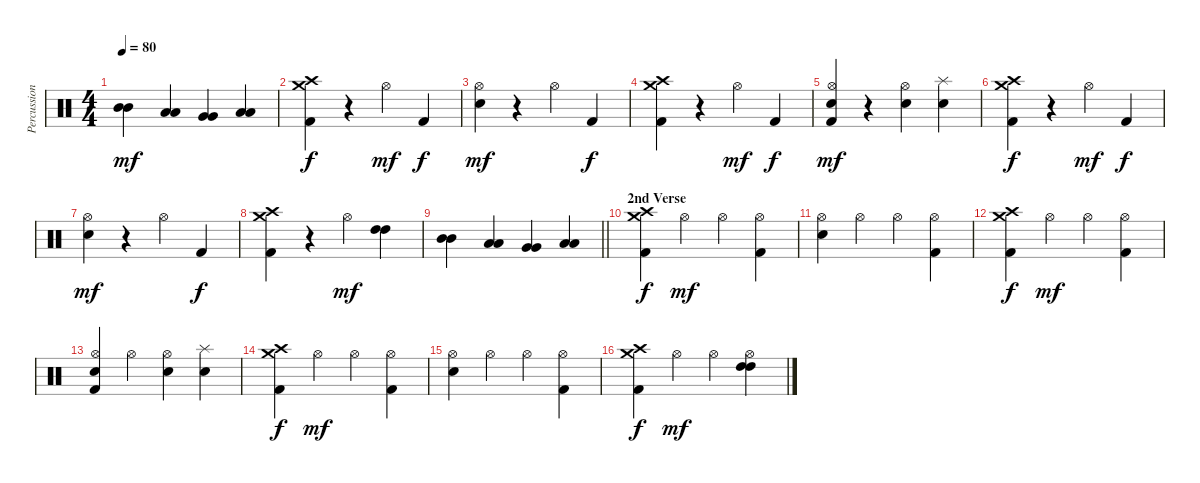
\track ("Percussioni" "Percussion") {instrument percussion}
\staff {score}
\articulation defaults
\ts (4 4)
\tempo 80
\clef neutral
\ks c
("Mid Tom (hit)" "Mid Tom (hit)").4{dy mf} ("Low Tom (hit)" "Low Tom (hit)").4 ("Very Low Tom (hit)" "Very Low Tom (hit)").4 ("Low Floor Tom (hit)" "Low Floor Tom (hit)").4 |
("Crash high (hit)" "Crash medium (hit)" "Kick (hit) 2").4{dy f} r.4 "Hi-Hat (open)".4{dy mf} "Kick (hit) 2".4{dy f} |
("Hi-Hat (open)" "Snare (hit) 2").4{dy mf} r.4 "Hi-Hat (open)".4 "Kick (hit) 2".4{dy f} |
("Crash high (hit)" "Crash medium (hit)" "Kick (hit) 2").4 r.4 "Hi-Hat (open)".4{dy mf} "Kick (hit) 2".4{dy f} |
("Hi-Hat (open)" "Snare (hit) 2" "Kick (hit) 2").4{dy mf} r.4 ("Hi-Hat (open)" "Snare (hit) 2").4 ("Splash (hit)" "Snare (hit) 2").4 |
("Crash high (hit)" "Crash medium (hit)" "Kick (hit) 2").4{dy f} r.4 "Hi-Hat (open)".4{dy mf} "Kick (hit) 2".4{dy f} |
("Hi-Hat (open)" "Snare (hit) 2").4{dy mf} r.4 "Hi-Hat (open)".4 "Kick (hit) 2".4{dy f} |
("Crash high (hit)" "Crash medium (hit)" "Kick (hit) 2").4 r.4 "Hi-Hat (open)".4{dy mf} ("High Tom (hit)" "High Tom (hit)").4 |
\barLineRight lightlight
("Mid Tom (hit)" "Mid Tom (hit)").4 ("Low Tom (hit)" "Low Tom (hit)").4 ("Very Low Tom (hit)" "Very Low Tom (hit)").4 ("Low Floor Tom (hit)" "Low Floor Tom (hit)").4 |
\section ("" "2nd Verse")
("Crash high (hit)" "Crash medium (hit)" "Kick (hit) 2").4{dy f} "Hi-Hat (open)".4{dy mf} "Hi-Hat (open)".4 ("Hi-Hat (open)" "Kick (hit) 2").4 |
("Hi-Hat (open)" "Snare (hit) 2").4 "Hi-Hat (open)".4 "Hi-Hat (open)".4 ("Hi-Hat (open)" "Kick (hit) 2").4 |
("Crash high (hit)" "Crash medium (hit)" "Kick (hit) 2").4{dy f} "Hi-Hat (open)".4{dy mf} "Hi-Hat (open)".4 ("Hi-Hat (open)" "Kick (hit) 2").4 |
("Hi-Hat (open)" "Snare (hit) 2" "Kick (hit) 2").4 "Hi-Hat (open)".4 ("Hi-Hat (open)" "Electric Snare (hit)").4 ("Splash (hit)" "Electric Snare (hit)").4 |
("Crash high (hit)" "Crash medium (hit)" "Kick (hit) 2").4{dy f} "Hi-Hat (open)".4{dy mf} "Hi-Hat (open)".4 ("Hi-Hat (open)" "Kick (hit) 2").4 |
("Hi-Hat (open)" "Snare (hit) 2").4 "Hi-Hat (open)".4 "Hi-Hat (open)".4 ("Hi-Hat (open)" "Kick (hit) 2").4 |
("Crash high (hit)" "Crash medium (hit)" "Kick (hit) 2").4{dy f} "Hi-Hat (open)".4{dy mf} "Hi-Hat (open)".4 ("Hi-Hat (open)" "High Tom (hit)" "High Tom (hit)").4
